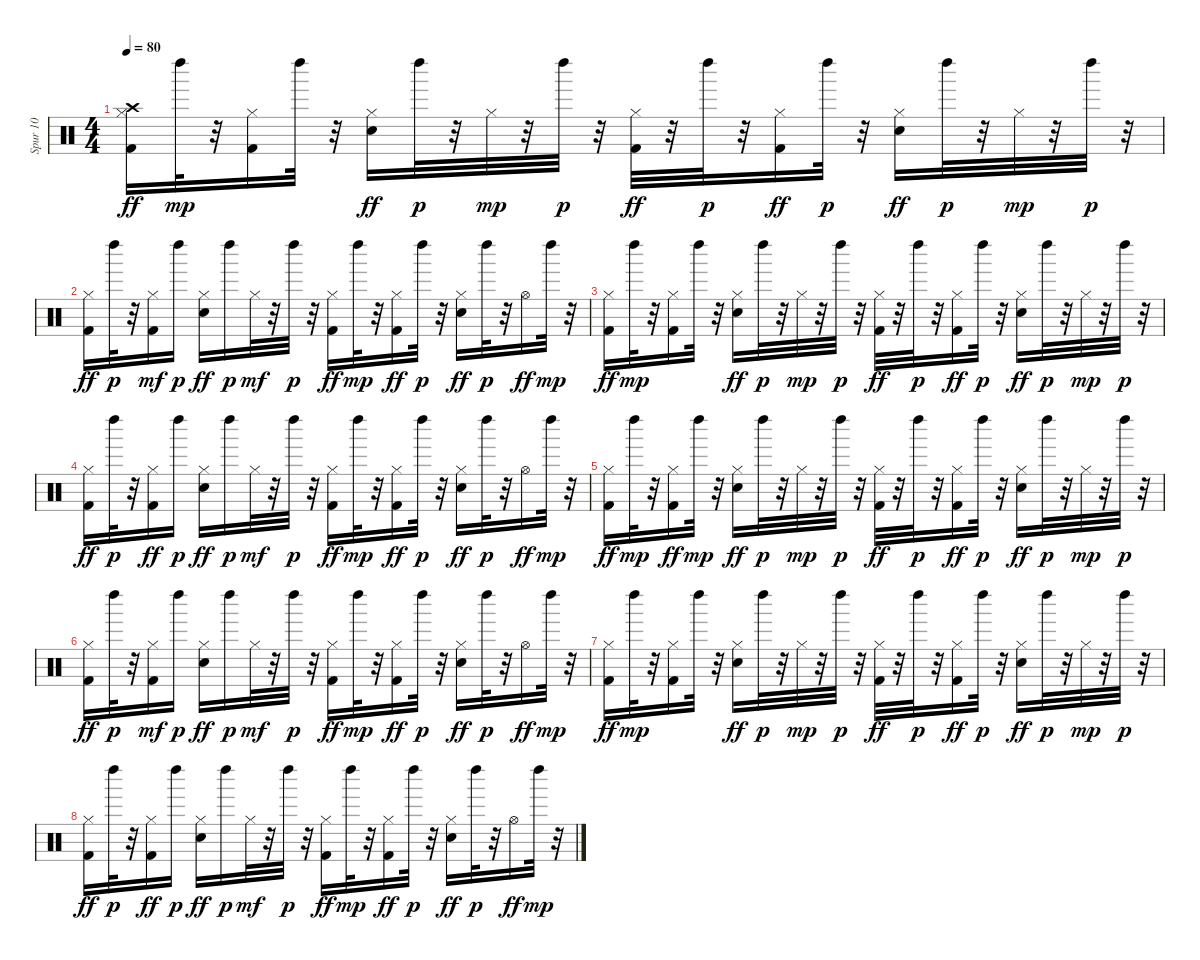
\track ("Spur 10" "Spur 10") {instrument percussion}
\staff {score}
\articulation defaults
\ts (4 4)
\tempo 80
\clef neutral
\ks c
("Hi-Hat (closed)" "Kick (hit) 2" "Crash high (hit)").16{dy ff} "Left Maraca (hit)".32{dy mp} r.32 ("Hi-Hat (closed)" "Kick (hit) 2").16 "Left Maraca (hit)".32 r.32 ("Electric Snare (hit)" "Hi-Hat (closed)").16{dy ff} "Left Maraca (hit)".32{dy p} r.32 "Hi-Hat (closed)".32{dy mp} r.32 "Left Maraca (hit)".32{dy p} r.32 ("Hi-Hat (closed)" "Kick (hit) 2").32{dy ff} r.32 "Left Maraca (hit)".32{dy p} r.32 ("Hi-Hat (closed)" "Kick (hit) 2").16{dy ff} "Left Maraca (hit)".32{dy p} r.32 ("Electric Snare (hit)" "Hi-Hat (closed)").16{dy ff} "Left Maraca (hit)".32{dy p} r.32 "Hi-Hat (closed)".32{dy mp} r.32 "Left Maraca (hit)".32{dy p} r.32 |
("Hi-Hat (closed)" "Kick (hit) 2").16{dy ff} "Left Maraca (hit)".32{dy p} r.32 ("Hi-Hat (closed)" "Kick (hit) 2").16{dy mf} "Left Maraca (hit)".16{dy p} ("Electric Snare (hit)" "Hi-Hat (closed)").16{dy ff} "Left Maraca (hit)".16{dy p} "Hi-Hat (closed)".32{dy mf} r.32 "Left Maraca (hit)".32{dy p} r.32 ("Hi-Hat (closed)" "Kick (hit) 2").16{dy ff} "Left Maraca (hit)".32{dy mp} r.32 ("Hi-Hat (closed)" "Kick (hit) 2").16{dy ff} "Left Maraca (hit)".32{dy p} r.32 ("Electric Snare (hit)" "Hi-Hat (closed)").16{dy ff} "Left Maraca (hit)".32{dy p} r.32 "Hi-Hat (open)".16{dy ff} "Left Maraca (hit)".32{dy mp} r.32 |
("Hi-Hat (closed)" "Kick (hit) 2").16{dy ff} "Left Maraca (hit)".32{dy mp} r.32 ("Hi-Hat (closed)" "Kick (hit) 2").16 "Left Maraca (hit)".32 r.32 ("Electric Snare (hit)" "Hi-Hat (closed)").16{dy ff} "Left Maraca (hit)".32{dy p} r.32 "Hi-Hat (closed)".32{dy mp} r.32 "Left Maraca (hit)".32{dy p} r.32 ("Hi-Hat (closed)" "Kick (hit) 2").32{dy ff} r.32 "Left Maraca (hit)".32{dy p} r.32 ("Hi-Hat (closed)" "Kick (hit) 2").16{dy ff} "Left Maraca (hit)".32{dy p} r.32 ("Electric Snare (hit)" "Hi-Hat (closed)").16{dy ff} "Left Maraca (hit)".32{dy p} r.32 "Hi-Hat (closed)".32{dy mp} r.32 "Left Maraca (hit)".32{dy p} r.32 |
("Hi-Hat (closed)" "Kick (hit) 2").16{dy ff} "Left Maraca (hit)".32{dy p} r.32 ("Hi-Hat (closed)" "Kick (hit) 2").16{dy ff} "Left Maraca (hit)".16{dy p} ("Electric Snare (hit)" "Hi-Hat (closed)").16{dy ff} "Left Maraca (hit)".16{dy p} "Hi-Hat (closed)".32{dy mf} r.32 "Left Maraca (hit)".32{dy p} r.32 ("Hi-Hat (closed)" "Kick (hit) 2").16{dy ff} "Left Maraca (hit)".32{dy mp} r.32 ("Hi-Hat (closed)" "Kick (hit) 2").16{dy ff} "Left Maraca (hit)".32{dy p} r.32 ("Electric Snare (hit)" "Hi-Hat (closed)").16{dy ff} "Left Maraca (hit)".32{dy p} r.32 "Hi-Hat (open)".16{dy ff} "Left Maraca (hit)".32{dy mp} r.32 |
("Hi-Hat (closed)" "Kick (hit) 2").16{dy ff} "Left Maraca (hit)".32{dy mp} r.32 ("Hi-Hat (closed)" "Kick (hit) 2").16{dy ff} "Left Maraca (hit)".32{dy mp} r.32 ("Electric Snare (hit)" "Hi-Hat (closed)").16{dy ff} "Left Maraca (hit)".32{dy p} r.32 "Hi-Hat (closed)".32{dy mp} r.32 "Left Maraca (hit)".32{dy p} r.32 ("Hi-Hat (closed)" "Kick (hit) 2").32{dy ff} r.32 "Left Maraca (hit)".32{dy p} r.32 ("Hi-Hat (closed)" "Kick (hit) 2").16{dy ff} "Left Maraca (hit)".32{dy p} r.32 ("Electric Snare (hit)" "Hi-Hat (closed)").16{dy ff} "Left Maraca (hit)".32{dy p} r.32 "Hi-Hat (closed)".32{dy mp} r.32 "Left Maraca (hit)".32{dy p} r.32 |
("Hi-Hat (closed)" "Kick (hit) 2").16{dy ff} "Left Maraca (hit)".32{dy p} r.32 ("Hi-Hat (closed)" "Kick (hit) 2").16{dy mf} "Left Maraca (hit)".16{dy p} ("Electric Snare (hit)" "Hi-Hat (closed)").16{dy ff} "Left Maraca (hit)".16{dy p} "Hi-Hat (closed)".32{dy mf} r.32 "Left Maraca (hit)".32{dy p} r.32 ("Hi-Hat (closed)" "Kick (hit) 2").16{dy ff} "Left Maraca (hit)".32{dy mp} r.32 ("Hi-Hat (closed)" "Kick (hit) 2").16{dy ff} "Left Maraca (hit)".32{dy p} r.32 ("Electric Snare (hit)" "Hi-Hat (closed)").16{dy ff} "Left Maraca (hit)".32{dy p} r.32 "Hi-Hat (open)".16{dy ff} "Left Maraca (hit)".32{dy mp} r.32 |
("Hi-Hat (closed)" "Kick (hit) 2").16{dy ff} "Left Maraca (hit)".32{dy mp} r.32 ("Hi-Hat (closed)" "Kick (hit) 2").16 "Left Maraca (hit)".32 r.32 ("Electric Snare (hit)" "Hi-Hat (closed)").16{dy ff} "Left Maraca (hit)".32{dy p} r.32 "Hi-Hat (closed)".32{dy mp} r.32 "Left Maraca (hit)".32{dy p} r.32 ("Hi-Hat (closed)" "Kick (hit) 2").32{dy ff} r.32 "Left Maraca (hit)".32{dy p} r.32 ("Hi-Hat (closed)" "Kick (hit) 2").16{dy ff} "Left Maraca (hit)".32{dy p} r.32 ("Electric Snare (hit)" "Hi-Hat (closed)").16{dy ff} "Left Maraca (hit)".32{dy p} r.32 "Hi-Hat (closed)".32{dy mp} r.32 "Left Maraca (hit)".32{dy p} r.32 |
("Hi-Hat (closed)" "Kick (hit) 2").16{dy ff} "Left Maraca (hit)".32{dy p} r.32 ("Hi-Hat (closed)" "Kick (hit) 2").16{dy ff} "Left Maraca (hit)".16{dy p} ("Electric Snare (hit)" "Hi-Hat (closed)").16{dy ff} "Left Maraca (hit)".16{dy p} "Hi-Hat (closed)".32{dy mf} r.32 "Left Maraca (hit)".32{dy p} r.32 ("Hi-Hat (closed)" "Kick (hit) 2").16{dy ff} "Left Maraca (hit)".32{dy mp} r.32 ("Hi-Hat (closed)" "Kick (hit) 2").16{dy ff} "Left Maraca (hit)".32{dy p} r.32 ("Electric Snare (hit)" "Hi-Hat (closed)").16{dy ff} "Left Maraca (hit)".32{dy p} r.32 "Hi-Hat (open)".16{dy ff} "Left Maraca (hit)".32{dy mp} r.32
